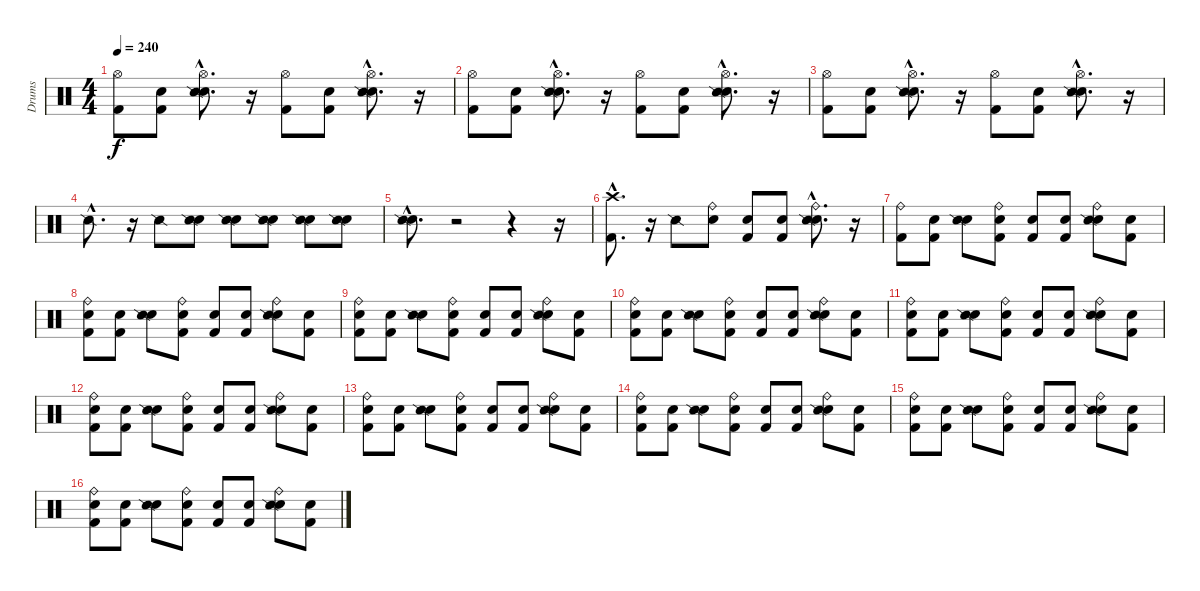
\track ("Drums" "Drums") {instrument percussion}
\staff {score}
\articulation defaults
\ts (4 4)
\tempo 240
\clef neutral
\ks c
("Kick (hit) 2" "Hi-Hat (open)").8{dy f} ("Snare (hit)" "Kick (hit) 2").8 ("Snare (hit)"{hac} "Hi-Hat (open)"{hac} "Snare (side stick) 2"{hac}).8{d} r.16 ("Kick (hit) 2" "Hi-Hat (open)").8 ("Snare (hit)" "Kick (hit) 2").8 ("Snare (hit)"{hac} "Hi-Hat (open)"{hac} "Snare (side stick) 2"{hac}).8{d} r.16 |
("Kick (hit) 2" "Hi-Hat (open)").8 ("Snare (hit)" "Kick (hit) 2").8 ("Snare (hit)"{hac} "Hi-Hat (open)"{hac} "Snare (side stick) 2"{hac}).8{d} r.16 ("Kick (hit) 2" "Hi-Hat (open)").8 ("Snare (hit)" "Kick (hit) 2").8 ("Snare (hit)"{hac} "Hi-Hat (open)"{hac} "Snare (side stick) 2"{hac}).8{d} r.16 |
("Kick (hit) 2" "Hi-Hat (open)").8 ("Snare (hit)" "Kick (hit) 2").8 ("Snare (hit)"{hac} "Hi-Hat (open)"{hac} "Snare (side stick) 2"{hac}).8{d} r.16 ("Kick (hit) 2" "Hi-Hat (open)").8 ("Snare (hit)" "Kick (hit) 2").8 ("Snare (hit)"{hac} "Hi-Hat (open)"{hac} "Snare (side stick) 2"{hac}).8{d} r.16 |
"Snare (side stick) 2"{hac}.8{d} r.16 "Snare (side stick) 2".8 ("Snare (hit)" "Snare (side stick) 2").8 ("Snare (hit)" "Snare (side stick) 2").8 ("Snare (hit)" "Snare (side stick) 2").8 ("Snare (hit)" "Snare (side stick) 2").8 ("Snare (hit)" "Snare (side stick) 2").8 |
("Snare (hit)"{hac} "Snare (side stick) 2"{hac}).8{d} r.2 r.4 r.16 |
("Kick (hit) 2"{hac} "Crash high (hit)"{hac}).8{d} r.16 "Snare (side stick) 2".8 ("Snare (hit)" "Ride (bell)").8 ("Snare (hit)" "Kick (hit) 2").8 ("Snare (hit)" "Kick (hit) 2").8 ("Snare (hit)"{hac} "Snare (side stick) 2"{hac} "Ride (bell)"{hac}).8{d} r.16 |
("Kick (hit) 2" "Ride (bell)").8 ("Snare (hit)" "Kick (hit) 2").8 ("Snare (hit)" "Snare (side stick) 2").8 ("Snare (hit)" "Kick (hit) 2" "Ride (bell)").8 ("Snare (hit)" "Kick (hit) 2").8 ("Snare (hit)" "Kick (hit) 2").8 ("Snare (hit)" "Ride (bell)" "Snare (side stick) 2").8 ("Snare (hit)" "Kick (hit) 2").8 |
("Snare (hit)" "Kick (hit) 2" "Ride (bell)").8 ("Snare (hit)" "Kick (hit) 2").8 ("Snare (hit)" "Snare (side stick) 2").8 ("Snare (hit)" "Kick (hit) 2" "Ride (bell)").8 ("Snare (hit)" "Kick (hit) 2").8 ("Snare (hit)" "Kick (hit) 2").8 ("Snare (hit)" "Ride (bell)" "Snare (side stick) 2").8 ("Snare (hit)" "Kick (hit) 2").8 |
("Snare (hit)" "Kick (hit) 2" "Ride (bell)").8 ("Snare (hit)" "Kick (hit) 2").8 ("Snare (hit)" "Snare (side stick) 2").8 ("Snare (hit)" "Kick (hit) 2" "Ride (bell)").8 ("Snare (hit)" "Kick (hit) 2").8 ("Snare (hit)" "Kick (hit) 2").8 ("Snare (hit)" "Ride (bell)" "Snare (side stick) 2").8 ("Snare (hit)" "Kick (hit) 2").8 |
("Snare (hit)" "Kick (hit) 2" "Ride (bell)").8 ("Snare (hit)" "Kick (hit) 2").8 ("Snare (hit)" "Snare (side stick) 2").8 ("Snare (hit)" "Kick (hit) 2" "Ride (bell)").8 ("Snare (hit)" "Kick (hit) 2").8 ("Snare (hit)" "Kick (hit) 2").8 ("Snare (hit)" "Ride (bell)" "Snare (side stick) 2").8 ("Snare (hit)" "Kick (hit) 2").8 |
("Snare (hit)" "Kick (hit) 2" "Ride (bell)").8 ("Snare (hit)" "Kick (hit) 2").8 ("Snare (hit)" "Snare (side stick) 2").8 ("Snare (hit)" "Kick (hit) 2" "Ride (bell)").8 ("Snare (hit)" "Kick (hit) 2").8 ("Snare (hit)" "Kick (hit) 2").8 ("Snare (hit)" "Ride (bell)" "Snare (side stick) 2").8 ("Snare (hit)" "Kick (hit) 2").8 |
("Snare (hit)" "Kick (hit) 2" "Ride (bell)").8 ("Snare (hit)" "Kick (hit) 2").8 ("Snare (hit)" "Snare (side stick) 2").8 ("Snare (hit)" "Kick (hit) 2" "Ride (bell)").8 ("Snare (hit)" "Kick (hit) 2").8 ("Snare (hit)" "Kick (hit) 2").8 ("Snare (hit)" "Ride (bell)" "Snare (side stick) 2").8 ("Snare (hit)" "Kick (hit) 2").8 |
("Snare (hit)" "Kick (hit) 2" "Ride (bell)").8 ("Snare (hit)" "Kick (hit) 2").8 ("Snare (hit)" "Snare (side stick) 2").8 ("Snare (hit)" "Kick (hit) 2" "Ride (bell)").8 ("Snare (hit)" "Kick (hit) 2").8 ("Snare (hit)" "Kick (hit) 2").8 ("Snare (hit)" "Ride (bell)" "Snare (side stick) 2").8 ("Snare (hit)" "Kick (hit) 2").8 |
("Snare (hit)" "Kick (hit) 2" "Ride (bell)").8 ("Snare (hit)" "Kick (hit) 2").8 ("Snare (hit)" "Snare (side stick) 2").8 ("Snare (hit)" "Kick (hit) 2" "Ride (bell)").8 ("Snare (hit)" "Kick (hit) 2").8 ("Snare (hit)" "Kick (hit) 2").8 ("Snare (hit)" "Ride (bell)" "Snare (side stick) 2").8 ("Snare (hit)" "Kick (hit) 2").8 |
("Snare (hit)" "Kick (hit) 2" "Ride (bell)").8 ("Snare (hit)" "Kick (hit) 2").8 ("Snare (hit)" "Snare (side stick) 2").8 ("Snare (hit)" "Kick (hit) 2" "Ride (bell)").8 ("Snare (hit)" "Kick (hit) 2").8 ("Snare (hit)" "Kick (hit) 2").8 ("Snare (hit)" "Ride (bell)" "Snare (side stick) 2").8 ("Snare (hit)" "Kick (hit) 2").8 |
("Snare (hit)" "Kick (hit) 2" "Ride (bell)").8 ("Snare (hit)" "Kick (hit) 2").8 ("Snare (hit)" "Snare (side stick) 2").8 ("Snare (hit)" "Kick (hit) 2" "Ride (bell)").8 ("Snare (hit)" "Kick (hit) 2").8 ("Snare (hit)" "Kick (hit) 2").8 ("Snare (hit)" "Ride (bell)" "Snare (side stick) 2").8 ("Snare (hit)" "Kick (hit) 2").8
